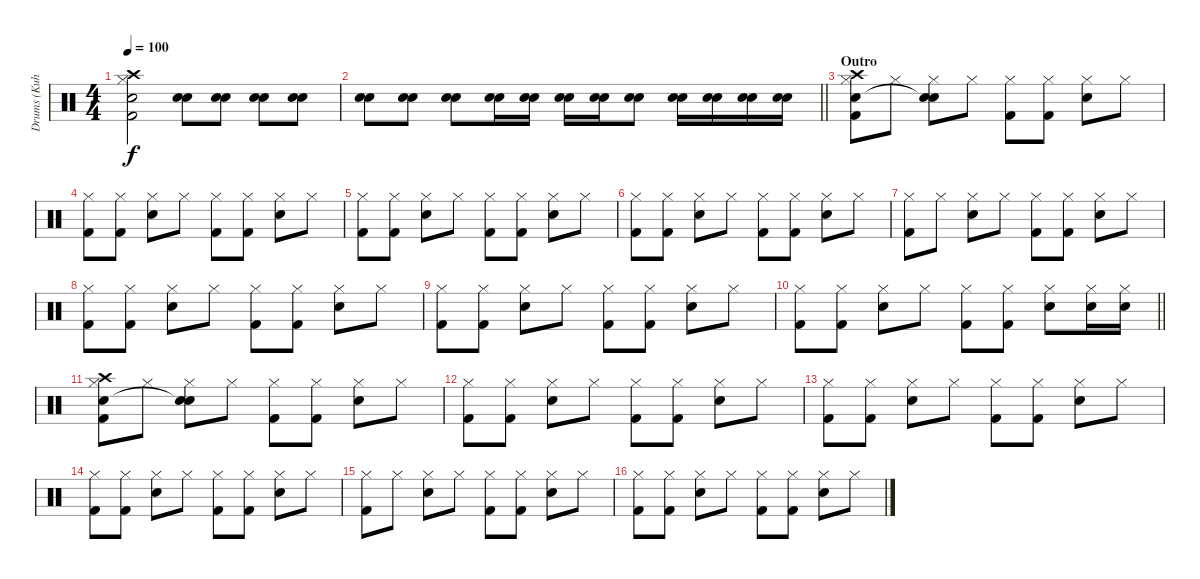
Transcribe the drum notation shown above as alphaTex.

\track ("Drums (Kuhara)" "Drums (Kuh") {instrument percussion}
\staff {score}
\articulation defaults
\ts (4 4)
\tempo 100
\clef neutral
\ks c
("Hi-Hat (closed)" "Electric Snare (hit)" "Crash high (hit)" "Kick (hit) 2").2{dy f} ("Electric Snare (hit)" "Electric Snare (hit)").8{volume 0} ("Electric Snare (hit)" "Electric Snare (hit)").8{volume 16} ("Electric Snare (hit)" "Electric Snare (hit)").8 ("Electric Snare (hit)" "Electric Snare (hit)").8 |
\barLineRight lightlight
("Electric Snare (hit)" "Electric Snare (hit)").8 ("Electric Snare (hit)" "Electric Snare (hit)").8 ("Electric Snare (hit)" "Electric Snare (hit)").8 ("Electric Snare (hit)" "Electric Snare (hit)").16 ("Electric Snare (hit)" "Electric Snare (hit)").16 ("Electric Snare (hit)" "Electric Snare (hit)").16 ("Electric Snare (hit)" "Electric Snare (hit)").16 ("Electric Snare (hit)" "Electric Snare (hit)").8 ("Electric Snare (hit)" "Electric Snare (hit)").16 ("Electric Snare (hit)" "Electric Snare (hit)").16 ("Electric Snare (hit)" "Electric Snare (hit)").16 ("Electric Snare (hit)" "Electric Snare (hit)").16 |
\section ("" "Outro")
("Hi-Hat (closed)" "Electric Snare (hit)" "Crash high (hit)" "Kick (hit) 2").8{volume 12} "Hi-Hat (closed)".8 ("Hi-Hat (closed)" "Snare (hit)"{t} "Electric Snare (hit)").8 "Hi-Hat (closed)".8 ("Hi-Hat (closed)" "Kick (hit) 2").8 ("Hi-Hat (closed)" "Kick (hit) 2").8 ("Hi-Hat (closed)" "Electric Snare (hit)").8 "Hi-Hat (closed)".8 |
("Hi-Hat (closed)" "Kick (hit) 2").8 ("Hi-Hat (closed)" "Kick (hit) 2").8 ("Hi-Hat (closed)" "Electric Snare (hit)").8 "Hi-Hat (closed)".8 ("Hi-Hat (closed)" "Kick (hit) 2").8 ("Hi-Hat (closed)" "Kick (hit) 2").8 ("Hi-Hat (closed)" "Electric Snare (hit)").8 "Hi-Hat (closed)".8 |
("Hi-Hat (closed)" "Kick (hit) 2").8 ("Hi-Hat (closed)" "Kick (hit) 2").8 ("Hi-Hat (closed)" "Electric Snare (hit)").8 "Hi-Hat (closed)".8 ("Hi-Hat (closed)" "Kick (hit) 2").8 ("Hi-Hat (closed)" "Kick (hit) 2").8 ("Hi-Hat (closed)" "Electric Snare (hit)").8 "Hi-Hat (closed)".8 |
("Hi-Hat (closed)" "Kick (hit) 2").8 ("Hi-Hat (closed)" "Kick (hit) 2").8 ("Hi-Hat (closed)" "Electric Snare (hit)").8 "Hi-Hat (closed)".8 ("Hi-Hat (closed)" "Kick (hit) 2").8 ("Hi-Hat (closed)" "Kick (hit) 2").8 ("Hi-Hat (closed)" "Electric Snare (hit)").8 "Hi-Hat (closed)".8 |
("Hi-Hat (closed)" "Kick (hit) 2").8 "Hi-Hat (closed)".8 ("Hi-Hat (closed)" "Electric Snare (hit)").8 "Hi-Hat (closed)".8 ("Hi-Hat (closed)" "Kick (hit) 2").8 ("Hi-Hat (closed)" "Kick (hit) 2").8 ("Hi-Hat (closed)" "Electric Snare (hit)").8 "Hi-Hat (closed)".8 |
("Hi-Hat (closed)" "Kick (hit) 2").8 ("Hi-Hat (closed)" "Kick (hit) 2").8 ("Hi-Hat (closed)" "Electric Snare (hit)").8 "Hi-Hat (closed)".8 ("Hi-Hat (closed)" "Kick (hit) 2").8 ("Hi-Hat (closed)" "Kick (hit) 2").8 ("Hi-Hat (closed)" "Electric Snare (hit)").8 "Hi-Hat (closed)".8 |
("Hi-Hat (closed)" "Kick (hit) 2").8 ("Hi-Hat (closed)" "Kick (hit) 2").8 ("Hi-Hat (closed)" "Electric Snare (hit)").8 "Hi-Hat (closed)".8 ("Hi-Hat (closed)" "Kick (hit) 2").8 ("Hi-Hat (closed)" "Kick (hit) 2").8 ("Hi-Hat (closed)" "Electric Snare (hit)").8 "Hi-Hat (closed)".8 |
\barLineRight lightlight
("Hi-Hat (closed)" "Kick (hit) 2").8 ("Hi-Hat (closed)" "Kick (hit) 2").8 ("Hi-Hat (closed)" "Electric Snare (hit)").8 "Hi-Hat (closed)".8 ("Hi-Hat (closed)" "Kick (hit) 2").8 ("Hi-Hat (closed)" "Kick (hit) 2").8 ("Hi-Hat (closed)" "Electric Snare (hit)").8 ("Hi-Hat (closed)" "Electric Snare (hit)").16 ("Hi-Hat (closed)" "Electric Snare (hit)").16 |
("Hi-Hat (closed)" "Electric Snare (hit)" "Crash high (hit)" "Kick (hit) 2").8{volume 12} "Hi-Hat (closed)".8 ("Hi-Hat (closed)" "Snare (hit)"{t} "Electric Snare (hit)").8 "Hi-Hat (closed)".8 ("Hi-Hat (closed)" "Kick (hit) 2").8 ("Hi-Hat (closed)" "Kick (hit) 2").8 ("Hi-Hat (closed)" "Electric Snare (hit)").8 "Hi-Hat (closed)".8 |
("Hi-Hat (closed)" "Kick (hit) 2").8 ("Hi-Hat (closed)" "Kick (hit) 2").8 ("Hi-Hat (closed)" "Electric Snare (hit)").8 "Hi-Hat (closed)".8 ("Hi-Hat (closed)" "Kick (hit) 2").8 ("Hi-Hat (closed)" "Kick (hit) 2").8 ("Hi-Hat (closed)" "Electric Snare (hit)").8 "Hi-Hat (closed)".8 |
("Hi-Hat (closed)" "Kick (hit) 2").8 ("Hi-Hat (closed)" "Kick (hit) 2").8 ("Hi-Hat (closed)" "Electric Snare (hit)").8 "Hi-Hat (closed)".8 ("Hi-Hat (closed)" "Kick (hit) 2").8 ("Hi-Hat (closed)" "Kick (hit) 2").8 ("Hi-Hat (closed)" "Electric Snare (hit)").8 "Hi-Hat (closed)".8 |
("Hi-Hat (closed)" "Kick (hit) 2").8 ("Hi-Hat (closed)" "Kick (hit) 2").8 ("Hi-Hat (closed)" "Electric Snare (hit)").8 "Hi-Hat (closed)".8 ("Hi-Hat (closed)" "Kick (hit) 2").8 ("Hi-Hat (closed)" "Kick (hit) 2").8 ("Hi-Hat (closed)" "Electric Snare (hit)").8 "Hi-Hat (closed)".8 |
("Hi-Hat (closed)" "Kick (hit) 2").8 "Hi-Hat (closed)".8 ("Hi-Hat (closed)" "Electric Snare (hit)").8 "Hi-Hat (closed)".8 ("Hi-Hat (closed)" "Kick (hit) 2").8 ("Hi-Hat (closed)" "Kick (hit) 2").8 ("Hi-Hat (closed)" "Electric Snare (hit)").8 "Hi-Hat (closed)".8 |
("Hi-Hat (closed)" "Kick (hit) 2").8 ("Hi-Hat (closed)" "Kick (hit) 2").8 ("Hi-Hat (closed)" "Electric Snare (hit)").8 "Hi-Hat (closed)".8 ("Hi-Hat (closed)" "Kick (hit) 2").8 ("Hi-Hat (closed)" "Kick (hit) 2").8 ("Hi-Hat (closed)" "Electric Snare (hit)").8 "Hi-Hat (closed)".8
